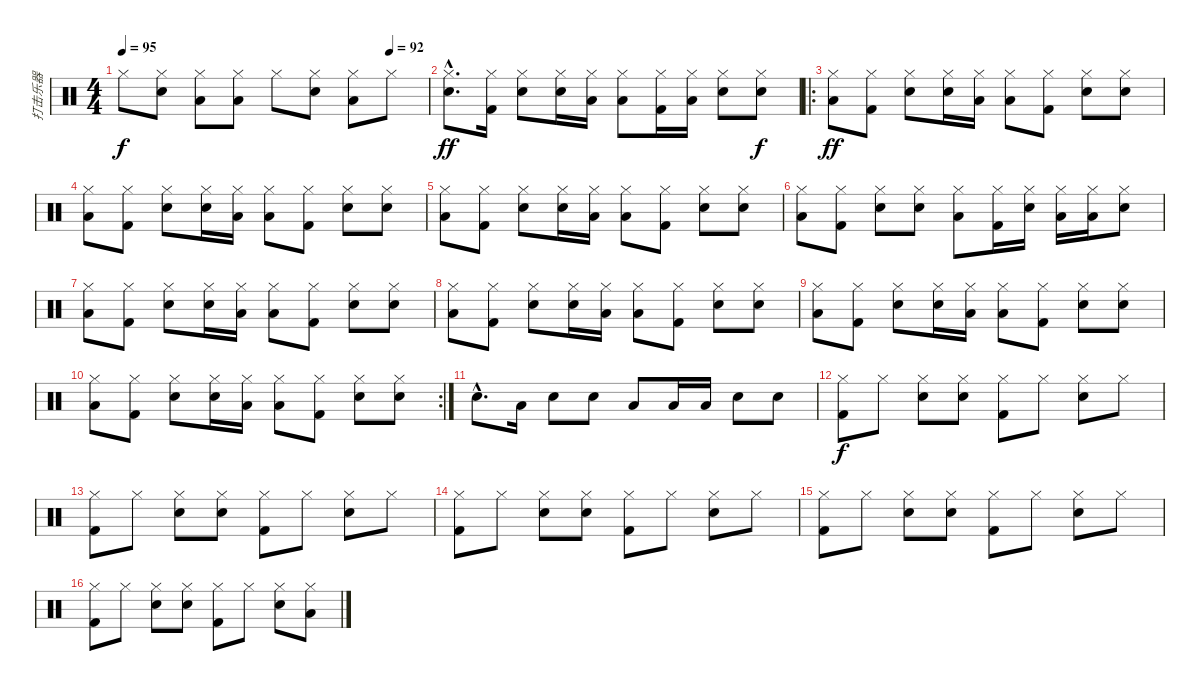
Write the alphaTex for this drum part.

\track ("打击乐器" "打击乐器") {instrument percussion}
\staff {score}
\articulation defaults
\ts (4 4)
\tempo 95
\tempo (92 0.875)
\clef neutral
\ks c "Hi-Hat (closed)".8{dy f}
("Hi-Hat (closed)" "Electric Snare (hit)").8 ("Hi-Hat (closed)" "Low Tom (hit)").8 ("Hi-Hat (closed)" "Low Tom (hit)").8 "Hi-Hat (closed)".8 ("Hi-Hat (closed)" "Electric Snare (hit)").8 ("Hi-Hat (closed)" "Low Tom (hit)").8 "Hi-Hat (closed)".8 |
("Hi-Hat (closed)"{hac} "Electric Snare (hit)"{hac}).8{d dy ff} ("Hi-Hat (closed)" "Kick (hit) 2").16 ("Hi-Hat (closed)" "Electric Snare (hit)").8 ("Hi-Hat (closed)" "Electric Snare (hit)").16 ("Hi-Hat (closed)" "Low Tom (hit)").16 ("Hi-Hat (closed)" "Low Tom (hit)").8 ("Hi-Hat (closed)" "Kick (hit) 2").16 ("Hi-Hat (closed)" "Low Tom (hit)").16 ("Hi-Hat (closed)" "Electric Snare (hit)").8 ("Hi-Hat (closed)" "Electric Snare (hit)").8{dy f} |
\ro
("Hi-Hat (closed)" "Low Tom (hit)").8{dy ff} ("Hi-Hat (closed)" "Kick (hit) 2").8 ("Hi-Hat (closed)" "Electric Snare (hit)").8 ("Hi-Hat (closed)" "Electric Snare (hit)").16 ("Hi-Hat (closed)" "Low Tom (hit)").16 ("Hi-Hat (closed)" "Low Tom (hit)").8 ("Hi-Hat (closed)" "Kick (hit) 2").8 ("Hi-Hat (closed)" "Electric Snare (hit)").8 ("Hi-Hat (closed)" "Electric Snare (hit)").8 |
("Hi-Hat (closed)" "Low Tom (hit)").8 ("Hi-Hat (closed)" "Kick (hit) 2").8 ("Hi-Hat (closed)" "Electric Snare (hit)").8 ("Hi-Hat (closed)" "Electric Snare (hit)").16 ("Hi-Hat (closed)" "Low Tom (hit)").16 ("Hi-Hat (closed)" "Low Tom (hit)").8 ("Hi-Hat (closed)" "Kick (hit) 2").8 ("Hi-Hat (closed)" "Electric Snare (hit)").8 ("Hi-Hat (closed)" "Electric Snare (hit)").8 |
("Hi-Hat (closed)" "Low Tom (hit)").8 ("Hi-Hat (closed)" "Kick (hit) 2").8 ("Hi-Hat (closed)" "Electric Snare (hit)").8 ("Hi-Hat (closed)" "Electric Snare (hit)").16 ("Hi-Hat (closed)" "Low Tom (hit)").16 ("Hi-Hat (closed)" "Low Tom (hit)").8 ("Hi-Hat (closed)" "Kick (hit) 2").8 ("Hi-Hat (closed)" "Electric Snare (hit)").8 ("Hi-Hat (closed)" "Electric Snare (hit)").8 |
("Hi-Hat (closed)" "Low Tom (hit)").8 ("Hi-Hat (closed)" "Kick (hit) 2").8 ("Hi-Hat (closed)" "Electric Snare (hit)").8 ("Hi-Hat (closed)" "Electric Snare (hit)").8 ("Hi-Hat (closed)" "Low Tom (hit)").8 ("Hi-Hat (closed)" "Kick (hit) 2").16 ("Hi-Hat (closed)" "Electric Snare (hit)").16 ("Hi-Hat (closed)" "Low Tom (hit)").16 ("Hi-Hat (closed)" "Low Tom (hit)").16 ("Hi-Hat (closed)" "Electric Snare (hit)").8 |
("Hi-Hat (closed)" "Low Tom (hit)").8 ("Hi-Hat (closed)" "Kick (hit) 2").8 ("Hi-Hat (closed)" "Electric Snare (hit)").8 ("Hi-Hat (closed)" "Electric Snare (hit)").16 ("Hi-Hat (closed)" "Low Tom (hit)").16 ("Hi-Hat (closed)" "Low Tom (hit)").8 ("Hi-Hat (closed)" "Kick (hit) 2").8 ("Hi-Hat (closed)" "Electric Snare (hit)").8 ("Hi-Hat (closed)" "Electric Snare (hit)").8 |
("Hi-Hat (closed)" "Low Tom (hit)").8 ("Hi-Hat (closed)" "Kick (hit) 2").8 ("Hi-Hat (closed)" "Electric Snare (hit)").8 ("Hi-Hat (closed)" "Electric Snare (hit)").16 ("Hi-Hat (closed)" "Low Tom (hit)").16 ("Hi-Hat (closed)" "Low Tom (hit)").8 ("Hi-Hat (closed)" "Kick (hit) 2").8 ("Hi-Hat (closed)" "Electric Snare (hit)").8 ("Hi-Hat (closed)" "Electric Snare (hit)").8 |
("Hi-Hat (closed)" "Low Tom (hit)").8 ("Hi-Hat (closed)" "Kick (hit) 2").8 ("Hi-Hat (closed)" "Electric Snare (hit)").8 ("Hi-Hat (closed)" "Electric Snare (hit)").16 ("Hi-Hat (closed)" "Low Tom (hit)").16 ("Hi-Hat (closed)" "Low Tom (hit)").8 ("Hi-Hat (closed)" "Kick (hit) 2").8 ("Hi-Hat (closed)" "Electric Snare (hit)").8 ("Hi-Hat (closed)" "Electric Snare (hit)").8 |
\rc 2
("Hi-Hat (closed)" "Low Tom (hit)").8 ("Hi-Hat (closed)" "Kick (hit) 2").8 ("Hi-Hat (closed)" "Electric Snare (hit)").8 ("Hi-Hat (closed)" "Electric Snare (hit)").16 ("Hi-Hat (closed)" "Low Tom (hit)").16 ("Hi-Hat (closed)" "Low Tom (hit)").8 ("Hi-Hat (closed)" "Kick (hit) 2").8 ("Hi-Hat (closed)" "Electric Snare (hit)").8 ("Hi-Hat (closed)" "Electric Snare (hit)").8 |
"Electric Snare (hit)"{hac}.8{d} "Low Tom (hit)".16 "Electric Snare (hit)".8 "Electric Snare (hit)".8 "Low Tom (hit)".8 "Low Tom (hit)".16 "Low Tom (hit)".16 "Electric Snare (hit)".8 "Electric Snare (hit)".8 |
("Hi-Hat (closed)" "Kick (hit) 2").8{dy f} "Hi-Hat (closed)".8 ("Hi-Hat (closed)" "Electric Snare (hit)").8 ("Hi-Hat (closed)" "Electric Snare (hit)").8 ("Hi-Hat (closed)" "Kick (hit) 2").8 "Hi-Hat (closed)".8 ("Hi-Hat (closed)" "Electric Snare (hit)").8 "Hi-Hat (closed)".8 |
("Hi-Hat (closed)" "Kick (hit) 2").8 "Hi-Hat (closed)".8 ("Hi-Hat (closed)" "Electric Snare (hit)").8 ("Hi-Hat (closed)" "Electric Snare (hit)").8 ("Hi-Hat (closed)" "Kick (hit) 2").8 "Hi-Hat (closed)".8 ("Hi-Hat (closed)" "Electric Snare (hit)").8 "Hi-Hat (closed)".8 |
("Hi-Hat (closed)" "Kick (hit) 2").8 "Hi-Hat (closed)".8 ("Hi-Hat (closed)" "Electric Snare (hit)").8 ("Hi-Hat (closed)" "Electric Snare (hit)").8 ("Hi-Hat (closed)" "Kick (hit) 2").8 "Hi-Hat (closed)".8 ("Hi-Hat (closed)" "Electric Snare (hit)").8 "Hi-Hat (closed)".8 |
("Hi-Hat (closed)" "Kick (hit) 2").8 "Hi-Hat (closed)".8 ("Hi-Hat (closed)" "Electric Snare (hit)").8 ("Hi-Hat (closed)" "Electric Snare (hit)").8 ("Hi-Hat (closed)" "Kick (hit) 2").8 "Hi-Hat (closed)".8 ("Hi-Hat (closed)" "Electric Snare (hit)").8 "Hi-Hat (closed)".8 |
("Hi-Hat (closed)" "Kick (hit) 2").8 "Hi-Hat (closed)".8 ("Hi-Hat (closed)" "Electric Snare (hit)").8 ("Hi-Hat (closed)" "Electric Snare (hit)").8 ("Hi-Hat (closed)" "Kick (hit) 2").8 "Hi-Hat (closed)".8 ("Hi-Hat (closed)" "Electric Snare (hit)").8 ("Hi-Hat (closed)" "Low Tom (hit)").8
